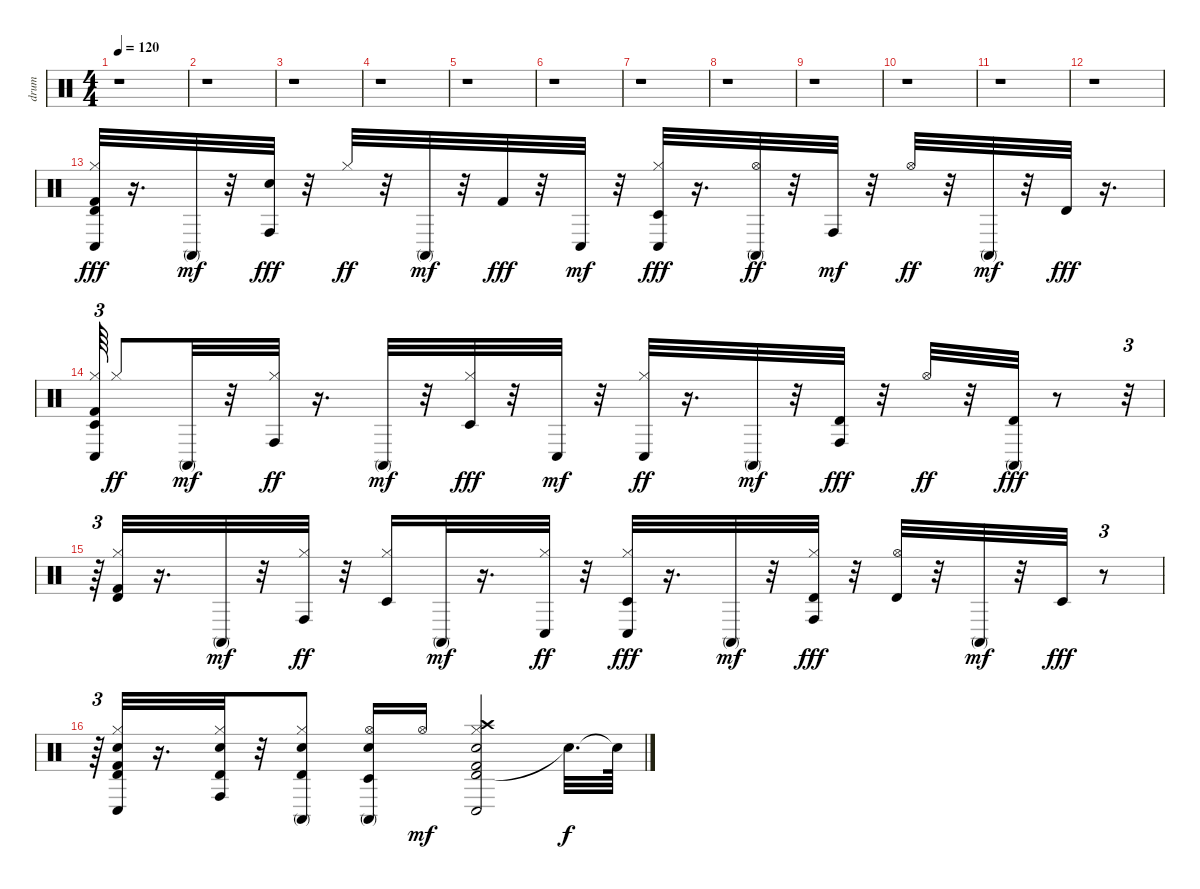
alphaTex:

\track ("drum" "drum") {instrument percussion}
\staff {score}
\articulation defaults
\ts (4 4)
\tempo 120
\clef neutral
\ks c
r.1{dy mf} |
r.1 |
r.1 |
r.1 |
r.1 |
r.1 |
r.1 |
r.1 |
r.1 |
r.1 |
r.1 |
r.1 |
("Conga low (hit)" "Kick (hit) 2" "Hi-Hat (closed)" "Timbale high (hit)").32{dy fff} r.16{d} "Conga high (mute)".32{dy mf} r.32 ("Conga high (hit)" "Electric Snare (hit)").32{dy fff} r.32 "Hi-Hat (closed)".32{dy ff} r.32 "Conga high (mute)".32{dy mf} r.32 "Kick (hit) 2".32{dy fff} r.32 "Conga low (hit)".32{dy mf} r.32 ("Conga low (hit)" "Hi-Hat (closed)" "Timbale low (hit)").32{dy fff} r.16{d} ("Conga high (mute)" "Hi-Hat (open)").32{dy ff} r.32 "Conga high (hit)".32{dy mf} r.32 "Hi-Hat (open)".32{dy ff} r.32 "Conga high (mute)".32{dy mf} r.32 "Timbale high (hit)".32{dy fff} r.16{d} |
("Conga low (hit)" "Kick (hit) 2" "Hi-Hat (closed)" "Timbale low (hit)").64{tu (3 2)} "Hi-Hat (closed)".8{dy ff} "Conga high (mute)".32{dy mf} r.32 ("Conga high (hit)" "Hi-Hat (closed)").32{dy ff} r.16{d} "Conga high (mute)".32{dy mf} r.32 ("Hi-Hat (closed)" "Timbale low (hit)").32{dy fff} r.32 "Conga low (hit)".32{dy mf} r.32 ("Conga low (hit)" "Hi-Hat (closed)").32{dy ff} r.16{d} "Conga high (mute)".32{dy mf} r.32 ("Conga high (hit)" "Timbale high (hit)").32{dy fff} r.32 "Hi-Hat (open)".32{dy ff} r.32 ("Conga high (mute)" "Timbale high (hit)").32{dy fff} r.8 r.32{tu (3 2)} |
r.64{tu (3 2)} ("Kick (hit) 2" "Hi-Hat (closed)" "Timbale high (hit)").32 r.16{d} "Conga high (mute)".32{dy mf} r.32 ("Conga high (hit)" "Hi-Hat (closed)").32{dy ff} r.32 ("Timbale low (hit)" "Hi-Hat (closed)").16 "Conga high (mute)".32{dy mf} r.16{d} ("Conga low (hit)" "Hi-Hat (closed)").32{dy ff} r.32 ("Conga low (hit)" "Hi-Hat (closed)" "Timbale low (hit)").32{dy fff} r.16{d} "Conga high (mute)".32{dy mf} r.32 ("Conga high (hit)" "Hi-Hat (closed)" "Timbale high (hit)").32{dy fff} r.32 ("Hi-Hat (open)" "Timbale high (hit)").32 r.32 "Conga high (mute)".32{dy mf} r.32 "Timbale low (hit)".32{dy fff} r.8{tu (3 2)} |
r.64{tu (3 2)} ("Conga low (hit)" "Timbale high (hit)" "Electric Snare (hit)" "Hi-Hat (closed)" "Kick (hit) 2").32 r.16{d} ("Conga high (hit)" "Hi-Hat (closed)" "Electric Snare (hit)" "Timbale high (hit)").32 r.32 ("Conga high (mute)" "Hi-Hat (closed)" "Electric Snare (hit)" "Timbale high (hit)").8 ("Conga high (mute)" "Timbale low (hit)" "Hi-Hat (open)" "Electric Snare (hit)").16 "Hi-Hat (open)".16{dy mf} ("Timbale high (hit)" "Hi-Hat (closed)" "Kick (hit) 2" "Crash high (hit)" "Electric Snare (hit)" "Conga low (hit)").2 "Snare (hit)"{t}.32{d dy f} "Snare (hit)"{t}.64
